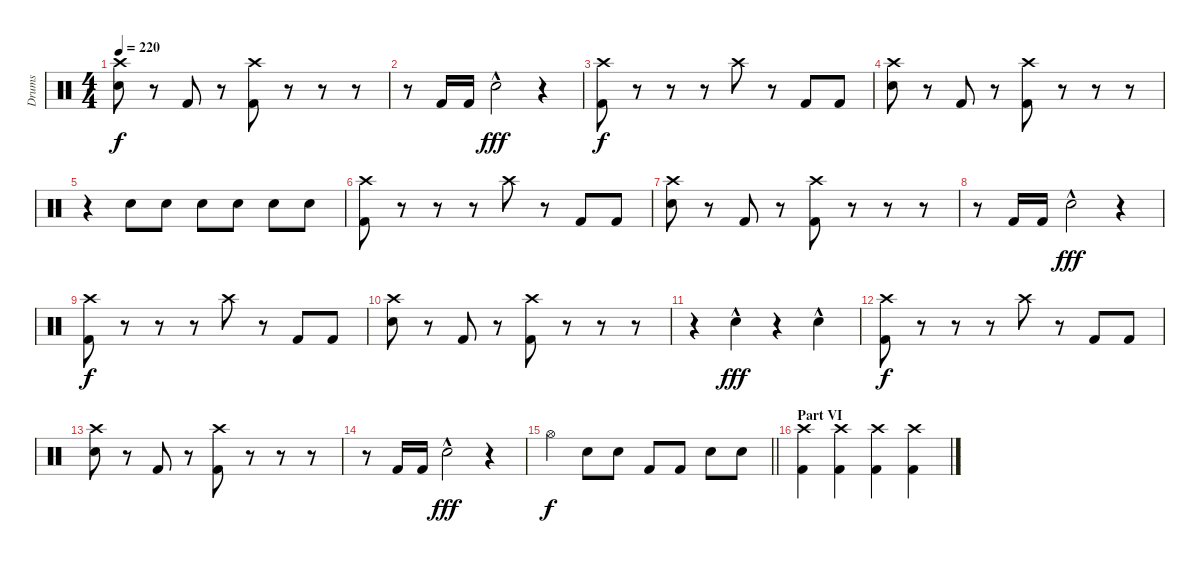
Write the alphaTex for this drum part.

\track ("Drums" "Drums") {instrument percussion}
\staff {score}
\articulation defaults
\ts (4 4)
\tempo 220
\clef neutral
\ks c
("Crash high (hit)" "Electric Snare (hit)").8{dy f} r.8 "Kick (hit) 2".8 r.8 ("Crash high (hit)" "Kick (hit) 2").8 r.8 r.8 r.8 |
r.8 "Kick (hit) 2".16 "Kick (hit) 2".16 "Electric Snare (hit)"{hac}.2{dy fff} r.4 |
("Crash high (hit)" "Kick (hit) 2").8{dy f} r.8 r.8 r.8 "Crash high (hit)".8 r.8 "Kick (hit) 2".8 "Kick (hit) 2".8 |
("Crash high (hit)" "Electric Snare (hit)").8 r.8 "Kick (hit) 2".8 r.8 ("Crash high (hit)" "Kick (hit) 2").8 r.8 r.8 r.8 |
r.4 "Electric Snare (hit)".8 "Electric Snare (hit)".8 "Electric Snare (hit)".8 "Electric Snare (hit)".8 "Electric Snare (hit)".8 "Electric Snare (hit)".8 |
("Crash high (hit)" "Kick (hit) 2").8 r.8 r.8 r.8 "Crash high (hit)".8 r.8 "Kick (hit) 2".8 "Kick (hit) 2".8 |
("Crash high (hit)" "Electric Snare (hit)").8 r.8 "Kick (hit) 2".8 r.8 ("Crash high (hit)" "Kick (hit) 2").8 r.8 r.8 r.8 |
r.8 "Kick (hit) 2".16 "Kick (hit) 2".16 "Electric Snare (hit)"{hac}.2{dy fff} r.4 |
("Crash high (hit)" "Kick (hit) 2").8{dy f} r.8 r.8 r.8 "Crash high (hit)".8 r.8 "Kick (hit) 2".8 "Kick (hit) 2".8 |
("Crash high (hit)" "Electric Snare (hit)").8 r.8 "Kick (hit) 2".8 r.8 ("Crash high (hit)" "Kick (hit) 2").8 r.8 r.8 r.8 |
r.4 "Electric Snare (hit)"{hac}.4{dy fff} r.4 "Electric Snare (hit)"{hac}.4 |
("Crash high (hit)" "Kick (hit) 2").8{dy f} r.8 r.8 r.8 "Crash high (hit)".8 r.8 "Kick (hit) 2".8 "Kick (hit) 2".8 |
("Crash high (hit)" "Electric Snare (hit)").8 r.8 "Kick (hit) 2".8 r.8 ("Crash high (hit)" "Kick (hit) 2").8 r.8 r.8 r.8 |
r.8 "Kick (hit) 2".16 "Kick (hit) 2".16 "Electric Snare (hit)"{hac}.2{dy fff} r.4 |
\barLineRight lightlight "Hi-Hat (open)".4{dy f} "Electric Snare (hit)".8 "Electric Snare (hit)".8 "Kick (hit) 2".8 "Kick (hit) 2".8 "Electric Snare (hit)".8 "Electric Snare (hit)".8
|
\section ("" "Part VI")
("Crash high (hit)" "Kick (hit) 2").4 ("Crash high (hit)" "Kick (hit) 2").4 ("Crash high (hit)" "Kick (hit) 2").4 ("Crash high (hit)" "Kick (hit) 2").4
